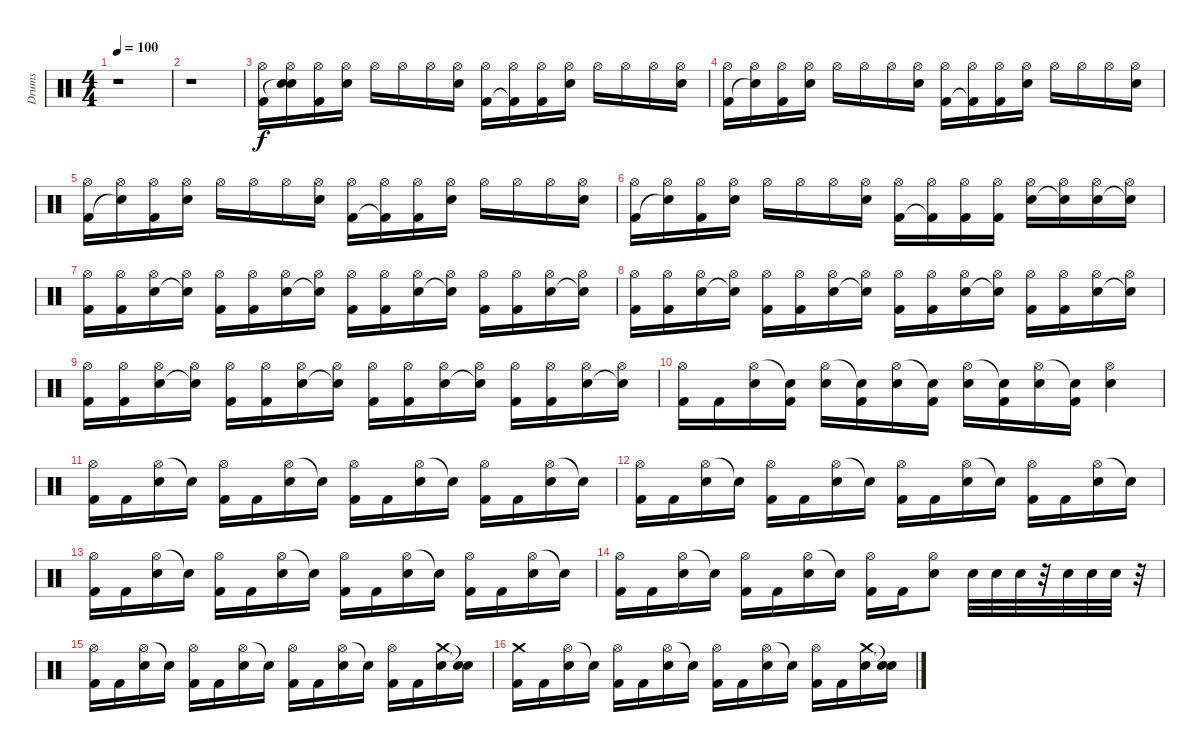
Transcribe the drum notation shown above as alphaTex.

\track ("Drums" "Drums") {instrument percussion}
\staff {score}
\articulation defaults
\ts (4 4)
\tempo 100
\clef neutral
\ks c
r.1{dy f} |
r.1 |
("Hi-Hat (open)" "Kick (hit) 2").16 ("Hi-Hat (open)" "Snare (hit)"{t} "Snare (hit)").16 ("Hi-Hat (open)" "Kick (hit) 2").16 ("Hi-Hat (open)" "Electric Snare (hit)").16 "Hi-Hat (open)".16 "Hi-Hat (open)".16 "Hi-Hat (open)".16 ("Hi-Hat (open)" "Electric Snare (hit)").16 ("Hi-Hat (open)" "Kick (hit) 2").16 ("Hi-Hat (open)" "Kick (hit) 2"{t}).16 ("Hi-Hat (open)" "Kick (hit) 2").16 ("Hi-Hat (open)" "Electric Snare (hit)").16 "Hi-Hat (open)".16 "Hi-Hat (open)".16 "Hi-Hat (open)".16 ("Hi-Hat (open)" "Electric Snare (hit)").16 |
("Hi-Hat (open)" "Kick (hit) 2").16 ("Hi-Hat (open)" "Snare (hit)"{t}).16 ("Hi-Hat (open)" "Kick (hit) 2").16 ("Hi-Hat (open)" "Electric Snare (hit)").16 "Hi-Hat (open)".16 "Hi-Hat (open)".16 "Hi-Hat (open)".16 ("Hi-Hat (open)" "Electric Snare (hit)").16 ("Hi-Hat (open)" "Kick (hit) 2").16 ("Hi-Hat (open)" "Kick (hit) 2"{t}).16 ("Hi-Hat (open)" "Kick (hit) 2").16 ("Hi-Hat (open)" "Electric Snare (hit)").16 "Hi-Hat (open)".16 "Hi-Hat (open)".16 "Hi-Hat (open)".16 ("Hi-Hat (open)" "Electric Snare (hit)").16 |
("Hi-Hat (open)" "Kick (hit) 2").16 ("Hi-Hat (open)" "Snare (hit)"{t}).16 ("Hi-Hat (open)" "Kick (hit) 2").16 ("Hi-Hat (open)" "Electric Snare (hit)").16 "Hi-Hat (open)".16 "Hi-Hat (open)".16 "Hi-Hat (open)".16 ("Hi-Hat (open)" "Electric Snare (hit)").16 ("Hi-Hat (open)" "Kick (hit) 2").16 ("Hi-Hat (open)" "Kick (hit) 2"{t}).16 ("Hi-Hat (open)" "Kick (hit) 2").16 ("Hi-Hat (open)" "Electric Snare (hit)").16 "Hi-Hat (open)".16 "Hi-Hat (open)".16 "Hi-Hat (open)".16 ("Hi-Hat (open)" "Electric Snare (hit)").16 |
("Hi-Hat (open)" "Kick (hit) 2").16 ("Hi-Hat (open)" "Snare (hit)"{t}).16 ("Hi-Hat (open)" "Kick (hit) 2").16 ("Hi-Hat (open)" "Electric Snare (hit)").16 "Hi-Hat (open)".16 "Hi-Hat (open)".16 "Hi-Hat (open)".16 ("Hi-Hat (open)" "Electric Snare (hit)").16 ("Hi-Hat (open)" "Kick (hit) 2").16 ("Hi-Hat (open)" "Kick (hit) 2"{t}).16 ("Hi-Hat (open)" "Kick (hit) 2").16 ("Hi-Hat (open)" "Kick (hit) 2").16 ("Hi-Hat (open)" "Electric Snare (hit)").16 ("Hi-Hat (open)" "Electric Snare (hit)"{t}).16 ("Hi-Hat (open)" "Electric Snare (hit)").16 ("Hi-Hat (open)" "Electric Snare (hit)"{t}).16 |
("Hi-Hat (open)" "Kick (hit) 2").16 ("Hi-Hat (open)" "Kick (hit) 2").16 ("Hi-Hat (open)" "Electric Snare (hit)").16 ("Hi-Hat (open)" "Electric Snare (hit)"{t}).16 ("Hi-Hat (open)" "Kick (hit) 2").16 ("Hi-Hat (open)" "Kick (hit) 2").16 ("Hi-Hat (open)" "Electric Snare (hit)").16 ("Hi-Hat (open)" "Electric Snare (hit)"{t}).16 ("Hi-Hat (open)" "Kick (hit) 2").16 ("Hi-Hat (open)" "Kick (hit) 2").16 ("Hi-Hat (open)" "Electric Snare (hit)").16 ("Hi-Hat (open)" "Snare (hit)"{t}).16 ("Hi-Hat (open)" "Kick (hit) 2").16 ("Hi-Hat (open)" "Kick (hit) 2").16 ("Hi-Hat (open)" "Electric Snare (hit)").16 ("Hi-Hat (open)" "Electric Snare (hit)"{t}).16 |
("Hi-Hat (open)" "Kick (hit) 2").16 ("Hi-Hat (open)" "Kick (hit) 2").16 ("Hi-Hat (open)" "Electric Snare (hit)").16 ("Hi-Hat (open)" "Electric Snare (hit)"{t}).16 ("Hi-Hat (open)" "Kick (hit) 2").16 ("Hi-Hat (open)" "Kick (hit) 2").16 ("Hi-Hat (open)" "Electric Snare (hit)").16 ("Hi-Hat (open)" "Electric Snare (hit)"{t}).16 ("Hi-Hat (open)" "Kick (hit) 2").16 ("Hi-Hat (open)" "Kick (hit) 2").16 ("Hi-Hat (open)" "Electric Snare (hit)").16 ("Hi-Hat (open)" "Snare (hit)"{t}).16 ("Hi-Hat (open)" "Kick (hit) 2").16 ("Hi-Hat (open)" "Kick (hit) 2").16 ("Hi-Hat (open)" "Electric Snare (hit)").16 ("Hi-Hat (open)" "Electric Snare (hit)"{t}).16 |
("Hi-Hat (open)" "Kick (hit) 2").16 ("Hi-Hat (open)" "Kick (hit) 2").16 ("Hi-Hat (open)" "Electric Snare (hit)").16 ("Hi-Hat (open)" "Electric Snare (hit)"{t}).16 ("Hi-Hat (open)" "Kick (hit) 2").16 ("Hi-Hat (open)" "Kick (hit) 2").16 ("Hi-Hat (open)" "Electric Snare (hit)").16 ("Hi-Hat (open)" "Electric Snare (hit)"{t}).16 ("Hi-Hat (open)" "Kick (hit) 2").16 ("Hi-Hat (open)" "Kick (hit) 2").16 ("Hi-Hat (open)" "Electric Snare (hit)").16 ("Hi-Hat (open)" "Snare (hit)"{t}).16 ("Hi-Hat (open)" "Kick (hit) 2").16 ("Hi-Hat (open)" "Kick (hit) 2").16 ("Hi-Hat (open)" "Electric Snare (hit)").16 ("Hi-Hat (open)" "Electric Snare (hit)"{t}).16 |
("Hi-Hat (open)" "Kick (hit) 2").16 "Kick (hit) 2".16 ("Hi-Hat (open)" "Electric Snare (hit)").16 ("Electric Snare (hit)"{t} "Kick (hit) 2").16 ("Hi-Hat (open)" "Electric Snare (hit)").16 ("Electric Snare (hit)"{t} "Kick (hit) 2").16 ("Hi-Hat (open)" "Electric Snare (hit)").16 ("Electric Snare (hit)"{t} "Kick (hit) 2").16 ("Hi-Hat (open)" "Electric Snare (hit)").16 ("Electric Snare (hit)"{t} "Kick (hit) 2").16 ("Hi-Hat (open)" "Electric Snare (hit)").16 ("Electric Snare (hit)"{t} "Kick (hit) 2").16 ("Hi-Hat (open)" "Electric Snare (hit)").4 |
("Hi-Hat (open)" "Kick (hit) 2").16 "Kick (hit) 2".16 ("Hi-Hat (open)" "Electric Snare (hit)").16 "Electric Snare (hit)"{t}.16 ("Hi-Hat (open)" "Kick (hit) 2").16 "Kick (hit) 2".16 ("Hi-Hat (open)" "Electric Snare (hit)").16 "Electric Snare (hit)"{t}.16 ("Hi-Hat (open)" "Kick (hit) 2").16 "Kick (hit) 2".16 ("Hi-Hat (open)" "Electric Snare (hit)").16 "Snare (hit)"{t}.16 ("Hi-Hat (open)" "Kick (hit) 2").16 "Kick (hit) 2".16 ("Hi-Hat (open)" "Electric Snare (hit)").16 "Electric Snare (hit)"{t}.16 |
("Hi-Hat (open)" "Kick (hit) 2").16 "Kick (hit) 2".16 ("Hi-Hat (open)" "Electric Snare (hit)").16 "Electric Snare (hit)"{t}.16 ("Hi-Hat (open)" "Kick (hit) 2").16 "Kick (hit) 2".16 ("Hi-Hat (open)" "Electric Snare (hit)").16 "Electric Snare (hit)"{t}.16 ("Hi-Hat (open)" "Kick (hit) 2").16 "Kick (hit) 2".16 ("Hi-Hat (open)" "Electric Snare (hit)").16 "Snare (hit)"{t}.16 ("Hi-Hat (open)" "Kick (hit) 2").16 "Kick (hit) 2".16 ("Hi-Hat (open)" "Electric Snare (hit)").16 "Electric Snare (hit)"{t}.16 |
("Hi-Hat (open)" "Kick (hit) 2").16 "Kick (hit) 2".16 ("Hi-Hat (open)" "Electric Snare (hit)").16 "Electric Snare (hit)"{t}.16 ("Hi-Hat (open)" "Kick (hit) 2").16 "Kick (hit) 2".16 ("Hi-Hat (open)" "Electric Snare (hit)").16 "Electric Snare (hit)"{t}.16 ("Hi-Hat (open)" "Kick (hit) 2").16 "Kick (hit) 2".16 ("Hi-Hat (open)" "Electric Snare (hit)").16 "Snare (hit)"{t}.16 ("Hi-Hat (open)" "Kick (hit) 2").16 "Kick (hit) 2".16 ("Hi-Hat (open)" "Electric Snare (hit)").16 "Electric Snare (hit)"{t}.16 |
("Hi-Hat (open)" "Kick (hit) 2").16 "Kick (hit) 2".16 ("Hi-Hat (open)" "Electric Snare (hit)").16 "Electric Snare (hit)"{t}.16 ("Hi-Hat (open)" "Kick (hit) 2").16 "Kick (hit) 2".16 ("Hi-Hat (open)" "Electric Snare (hit)").16 "Electric Snare (hit)"{t}.16 ("Hi-Hat (open)" "Kick (hit) 2").16 "Kick (hit) 2".16 ("Hi-Hat (open)" "Electric Snare (hit)").8 "Electric Snare (hit)".32 "Electric Snare (hit)".32 "Electric Snare (hit)".32 r.32 "Electric Snare (hit)".32 "Electric Snare (hit)".32 "Electric Snare (hit)".32 r.32 |
("Hi-Hat (open)" "Kick (hit) 2").16 "Kick (hit) 2".16 ("Hi-Hat (open)" "Electric Snare (hit)").16 "Electric Snare (hit)"{t}.16 ("Hi-Hat (open)" "Kick (hit) 2").16 "Kick (hit) 2".16 ("Hi-Hat (open)" "Electric Snare (hit)").16 "Electric Snare (hit)"{t}.16 ("Hi-Hat (open)" "Kick (hit) 2").16 "Kick (hit) 2".16 ("Hi-Hat (open)" "Electric Snare (hit)").16 "Snare (hit)"{t}.16 ("Hi-Hat (open)" "Kick (hit) 2").16 "Kick (hit) 2".16 ("Crash medium (hit)" "Electric Snare (hit)").16 ("Snare (hit)"{t} "Electric Snare (hit)"{t}).16 |
("Crash medium (hit)" "Kick (hit) 2").16 "Kick (hit) 2".16 ("Hi-Hat (open)" "Electric Snare (hit)").16 "Electric Snare (hit)"{t}.16 ("Hi-Hat (open)" "Kick (hit) 2").16 "Kick (hit) 2".16 ("Hi-Hat (open)" "Electric Snare (hit)").16 "Electric Snare (hit)"{t}.16 ("Hi-Hat (open)" "Kick (hit) 2").16 "Kick (hit) 2".16 ("Hi-Hat (open)" "Electric Snare (hit)").16 "Snare (hit)"{t}.16 ("Hi-Hat (open)" "Kick (hit) 2").16 "Kick (hit) 2".16 ("Crash medium (hit)" "Electric Snare (hit)").16 ("Snare (hit)"{t} "Electric Snare (hit)"{t}).16
